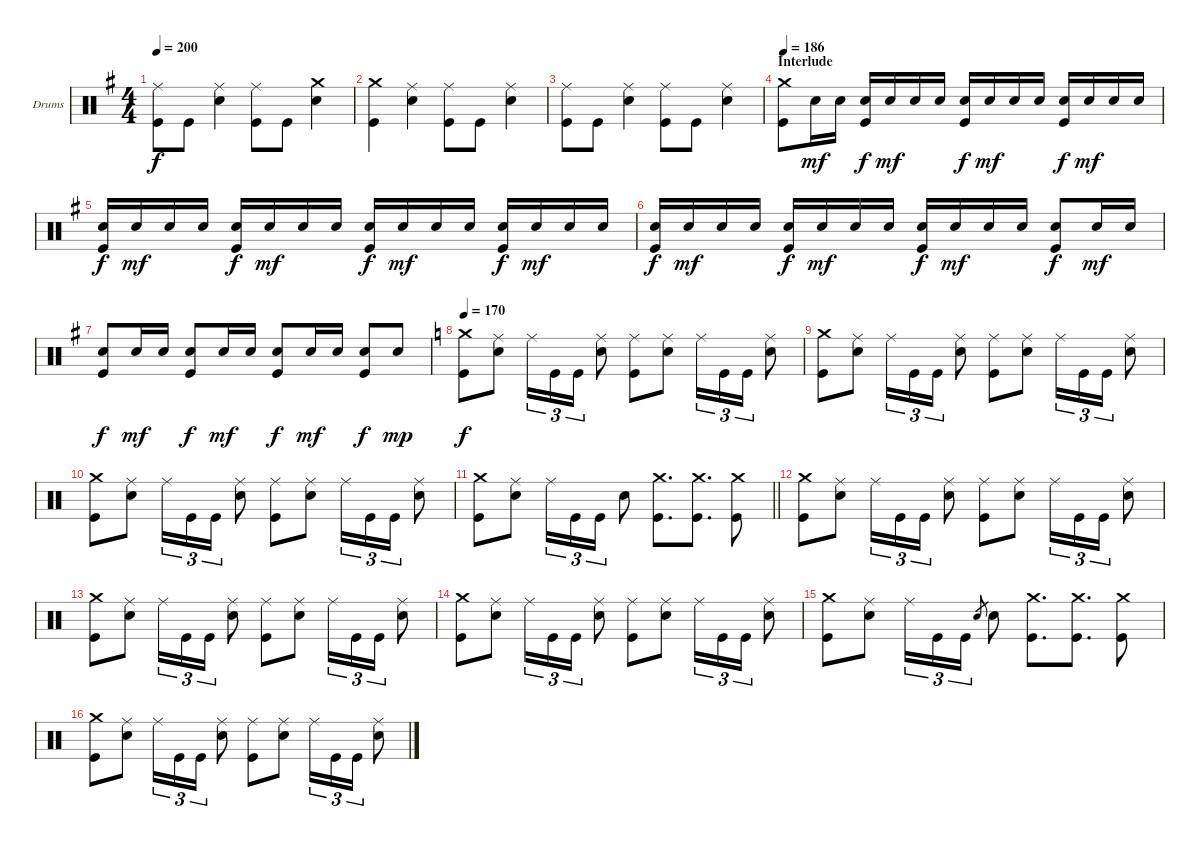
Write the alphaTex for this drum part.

\bracketExtendMode groupsimilarinstruments
\firstSystemTrackNameOrientation horizontal
\otherSystemsTrackNameOrientation horizontal
\track ("Drums" "Drums") {instrument percussion}
\staff {score}
\articulation defaults
\ts (4 4)
\tempo 200
\clef neutral
\ks g
("Ride (middle)" "Kick (hit)").8{dy f} "Kick (hit)".8 ("Ride (middle)" "Snare (hit) 2").4 ("Ride (middle)" "Kick (hit)").8 "Kick (hit)".8 ("Crash medium (hit)" "Snare (hit) 2").4 |
("Crash medium (hit)" "Kick (hit)").4 ("Ride (middle)" "Snare (hit) 2").4 ("Ride (middle)" "Kick (hit)").8 "Kick (hit)".8 ("Ride (middle)" "Snare (hit) 2").4 |
("Ride (middle)" "Kick (hit)").8 "Kick (hit)".8 ("Ride (middle)" "Snare (hit) 2").4 ("Ride (middle)" "Kick (hit)").8 "Kick (hit)".8 ("Ride (middle)" "Snare (hit) 2").4 |
\section ("" "Interlude")
\tempo 186
("Kick (hit)" "Crash medium (hit)").8 "Snare (hit) 2".16{dy mf} "Snare (hit) 2".16 ("Kick (hit)" "Snare (hit) 2").16{dy f} "Snare (hit) 2".16{dy mf} "Snare (hit) 2".16 "Snare (hit) 2".16 ("Kick (hit)" "Snare (hit) 2").16{dy f} "Snare (hit) 2".16{dy mf} "Snare (hit) 2".16 "Snare (hit) 2".16 ("Kick (hit)" "Snare (hit) 2").16{dy f} "Snare (hit) 2".16{dy mf} "Snare (hit) 2".16 "Snare (hit) 2".16 |
("Kick (hit)" "Snare (hit) 2").16{dy f} "Snare (hit) 2".16{dy mf} "Snare (hit) 2".16 "Snare (hit) 2".16 ("Kick (hit)" "Snare (hit) 2").16{dy f} "Snare (hit) 2".16{dy mf} "Snare (hit) 2".16 "Snare (hit) 2".16 ("Kick (hit)" "Snare (hit) 2").16{dy f} "Snare (hit) 2".16{dy mf} "Snare (hit) 2".16 "Snare (hit) 2".16 ("Kick (hit)" "Snare (hit) 2").16{dy f} "Snare (hit) 2".16{dy mf} "Snare (hit) 2".16 "Snare (hit) 2".16 |
("Kick (hit)" "Snare (hit) 2").16{dy f} "Snare (hit) 2".16{dy mf} "Snare (hit) 2".16 "Snare (hit) 2".16 ("Kick (hit)" "Snare (hit) 2").16{dy f} "Snare (hit) 2".16{dy mf} "Snare (hit) 2".16 "Snare (hit) 2".16 ("Kick (hit)" "Snare (hit) 2").16{dy f} "Snare (hit) 2".16{dy mf} "Snare (hit) 2".16 "Snare (hit) 2".16 ("Snare (hit) 2" "Kick (hit)").8{dy f} "Snare (hit) 2".16{dy mf} "Snare (hit) 2".16 |
("Snare (hit) 2" "Kick (hit)").8{dy f} "Snare (hit) 2".16{dy mf} "Snare (hit) 2".16 ("Snare (hit) 2" "Kick (hit)").8{dy f} "Snare (hit) 2".16{dy mf} "Snare (hit) 2".16 ("Snare (hit) 2" "Kick (hit)").8{dy f} "Snare (hit) 2".16{dy mf} "Snare (hit) 2".16 ("Snare (hit) 2" "Kick (hit)").8{dy f} "Snare (hit) 2".8{dy mp} |
\tempo 170
\ks c
("Crash medium (hit)" "Kick (hit)").8{dy f} ("Ride (middle)" "Snare (hit) 2").8 "Ride (middle)".16{tu (3 2)} "Kick (hit)".16{tu (3 2)} "Kick (hit)".16{tu (3 2)} ("Ride (middle)" "Snare (hit) 2").8 ("Ride (middle)" "Kick (hit)").8 ("Ride (middle)" "Snare (hit) 2").8 "Ride (middle)".16{tu (3 2)} "Kick (hit)".16{tu (3 2)} "Kick (hit)".16{tu (3 2)} ("Ride (middle)" "Snare (hit) 2").8 |
("Crash medium (hit)" "Kick (hit)").8 ("Ride (middle)" "Snare (hit) 2").8 "Ride (middle)".16{tu (3 2)} "Kick (hit)".16{tu (3 2)} "Kick (hit)".16{tu (3 2)} ("Ride (middle)" "Snare (hit) 2").8 ("Ride (middle)" "Kick (hit)").8 ("Ride (middle)" "Snare (hit) 2").8 "Ride (middle)".16{tu (3 2)} "Kick (hit)".16{tu (3 2)} "Kick (hit)".16{tu (3 2)} ("Ride (middle)" "Snare (hit) 2").8 |
("Crash medium (hit)" "Kick (hit)").8 ("Ride (middle)" "Snare (hit) 2").8 "Ride (middle)".16{tu (3 2)} "Kick (hit)".16{tu (3 2)} "Kick (hit)".16{tu (3 2)} ("Ride (middle)" "Snare (hit) 2").8 ("Ride (middle)" "Kick (hit)").8 ("Ride (middle)" "Snare (hit) 2").8 "Ride (middle)".16{tu (3 2)} "Kick (hit)".16{tu (3 2)} "Kick (hit)".16{tu (3 2)} ("Ride (middle)" "Snare (hit) 2").8 |
\barLineRight lightlight
("Crash medium (hit)" "Kick (hit)").8 ("Ride (middle)" "Snare (hit) 2").8 "Ride (middle)".16{tu (3 2)} "Kick (hit)".16{tu (3 2)} "Kick (hit)".16{tu (3 2)} "Snare (hit) 2".8 ("Crash medium (hit)" "Kick (hit)").8{d} ("Crash medium (hit)" "Kick (hit)").8{d} ("Crash medium (hit)" "Kick (hit)").8 |
("Crash medium (hit)" "Kick (hit)").8 ("Ride (middle)" "Snare (hit) 2").8 "Ride (middle)".16{tu (3 2)} "Kick (hit)".16{tu (3 2)} "Kick (hit)".16{tu (3 2)} ("Ride (middle)" "Snare (hit) 2").8 ("Ride (middle)" "Kick (hit)").8 ("Ride (middle)" "Snare (hit) 2").8 "Ride (middle)".16{tu (3 2)} "Kick (hit)".16{tu (3 2)} "Kick (hit)".16{tu (3 2)} ("Ride (middle)" "Snare (hit) 2").8 |
("Crash medium (hit)" "Kick (hit)").8 ("Ride (middle)" "Snare (hit) 2").8 "Ride (middle)".16{tu (3 2)} "Kick (hit)".16{tu (3 2)} "Kick (hit)".16{tu (3 2)} ("Ride (middle)" "Snare (hit) 2").8 ("Ride (middle)" "Kick (hit)").8 ("Ride (middle)" "Snare (hit) 2").8 "Ride (middle)".16{tu (3 2)} "Kick (hit)".16{tu (3 2)} "Kick (hit)".16{tu (3 2)} ("Ride (middle)" "Snare (hit) 2").8 |
("Crash medium (hit)" "Kick (hit)").8 ("Ride (middle)" "Snare (hit) 2").8 "Ride (middle)".16{tu (3 2)} "Kick (hit)".16{tu (3 2)} "Kick (hit)".16{tu (3 2)} ("Ride (middle)" "Snare (hit) 2").8 ("Ride (middle)" "Kick (hit)").8 ("Ride (middle)" "Snare (hit) 2").8 "Ride (middle)".16{tu (3 2)} "Kick (hit)".16{tu (3 2)} "Kick (hit)".16{tu (3 2)} ("Ride (middle)" "Snare (hit) 2").8 |
("Crash medium (hit)" "Kick (hit)").8 ("Ride (middle)" "Snare (hit) 2").8 "Ride (middle)".16{tu (3 2)} "Kick (hit)".16{tu (3 2)} "Kick (hit)".16{tu (3 2)} "Snare (hit) 2".8{gr} "Snare (hit) 2".8 ("Crash medium (hit)" "Kick (hit)").8{d} ("Crash medium (hit)" "Kick (hit)").8{d} ("Crash medium (hit)" "Kick (hit)").8 |
("Crash medium (hit)" "Kick (hit)").8 ("Ride (middle)" "Snare (hit) 2").8 "Ride (middle)".16{tu (3 2)} "Kick (hit)".16{tu (3 2)} "Kick (hit)".16{tu (3 2)} ("Ride (middle)" "Snare (hit) 2").8 ("Ride (middle)" "Kick (hit)").8 ("Ride (middle)" "Snare (hit) 2").8 "Ride (middle)".16{tu (3 2)} "Kick (hit)".16{tu (3 2)} "Kick (hit)".16{tu (3 2)} ("Ride (middle)" "Snare (hit) 2").8
